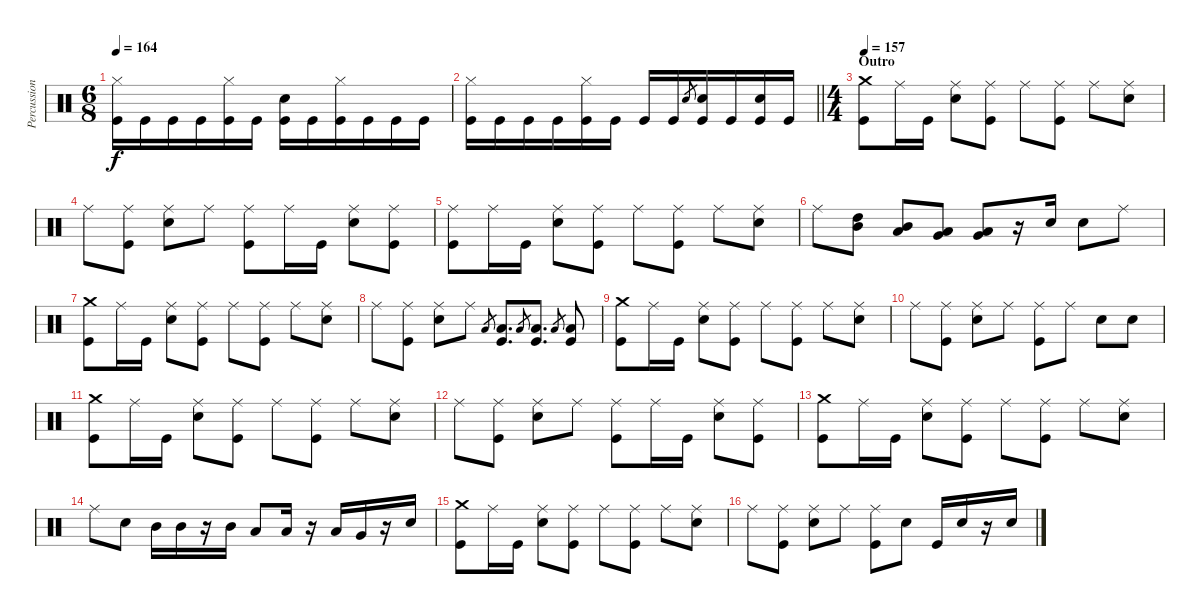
\track ("Percussion" "Percussion") {instrument percussion}
\staff {score}
\articulation defaults
\ts (6 8)
\tempo 164
\clef neutral
\ks c
("Hi-Hat (closed)" "Kick (hit)").16{dy f} "Kick (hit)".16 "Kick (hit)".16 "Kick (hit)".16 ("Hi-Hat (closed)" "Kick (hit)").16 "Kick (hit)".16 ("Snare (hit) 2" "Kick (hit)").16 "Kick (hit)".16 ("Hi-Hat (closed)" "Kick (hit)").16 "Kick (hit)".16 "Kick (hit)".16 "Kick (hit)".16 |
\barLineRight lightlight
("Hi-Hat (closed)" "Kick (hit)").16 "Kick (hit)".16 "Kick (hit)".16 "Kick (hit)".16 ("Hi-Hat (closed)" "Kick (hit)").16 "Kick (hit)".16 "Kick (hit)".16 "Kick (hit)".16 "Snare (hit) 2".8{gr} ("Snare (hit) 2" "Kick (hit)").16 "Kick (hit)".16 ("Snare (hit) 2" "Kick (hit)").16 "Kick (hit)".16 |
\ts (4 4)
\section ("" "Outro")
\tempo 157
("Crash medium (hit)" "Kick (hit)").8 "Ride (middle)".16 "Kick (hit)".16 ("Ride (middle)" "Snare (hit) 2").8 ("Ride (middle)" "Kick (hit)").8 "Ride (middle)".8 ("Ride (middle)" "Kick (hit)").8 "Ride (middle)".8 ("Ride (middle)" "Snare (hit) 2").8 |
"Ride (middle)".8 ("Ride (middle)" "Kick (hit)").8 ("Ride (middle)" "Snare (hit) 2").8 "Ride (middle)".8 ("Ride (middle)" "Kick (hit)").8 "Ride (middle)".16 "Kick (hit)".16 ("Ride (middle)" "Snare (hit) 2").8 ("Ride (middle)" "Kick (hit)").8 |
("Ride (middle)" "Kick (hit)").8 "Ride (middle)".16 "Kick (hit)".16 ("Ride (middle)" "Snare (hit) 2").8 ("Ride (middle)" "Kick (hit)").8 "Ride (middle)".8 ("Ride (middle)" "Kick (hit)").8 "Ride (middle)".8 ("Ride (middle)" "Snare (hit) 2").8 |
"Ride (middle)".8 ("High Tom (hit)" "Mid Tom (hit)").8 ("Mid Tom (hit)" "Low Tom (hit)").8 ("Low Tom (hit)" "Very Low Tom (hit)").8 ("Very Low Tom (hit)" "Low Floor Tom (hit)").8 r.16 "Snare (hit) 2".16 "Snare (hit) 2".8 "Ride (middle)".8 |
("Crash medium (hit)" "Kick (hit)").8 "Ride (middle)".16 "Kick (hit)".16 ("Ride (middle)" "Snare (hit) 2").8 ("Ride (middle)" "Kick (hit)").8 "Ride (middle)".8 ("Ride (middle)" "Kick (hit)").8 "Ride (middle)".8 ("Ride (middle)" "Snare (hit) 2").8 |
"Ride (middle)".8 ("Ride (middle)" "Kick (hit)").8 ("Ride (middle)" "Snare (hit) 2").8 "Ride (middle)".8 "Low Floor Tom (hit)".8{gr} ("Low Tom (hit)" "Kick (hit)").8{d} "Low Floor Tom (hit)".8{gr} ("Low Tom (hit)" "Kick (hit)").8{d} "Low Floor Tom (hit)".8{gr} ("Low Tom (hit)" "Kick (hit)").8 |
("Crash medium (hit)" "Kick (hit)").8 "Ride (middle)".16 "Kick (hit)".16 ("Ride (middle)" "Snare (hit) 2").8 ("Ride (middle)" "Kick (hit)").8 "Ride (middle)".8 ("Ride (middle)" "Kick (hit)").8 "Ride (middle)".8 ("Ride (middle)" "Snare (hit) 2").8 |
"Ride (middle)".8 ("Ride (middle)" "Kick (hit)").8 ("Ride (middle)" "Snare (hit) 2").8 "Ride (middle)".8 ("Ride (middle)" "Kick (hit)").8 "Ride (middle)".8 "Snare (hit) 2".8 "Snare (hit) 2".8 |
("Crash medium (hit)" "Kick (hit)").8 "Ride (middle)".16 "Kick (hit)".16 ("Ride (middle)" "Snare (hit) 2").8 ("Ride (middle)" "Kick (hit)").8 "Ride (middle)".8 ("Ride (middle)" "Kick (hit)").8 "Ride (middle)".8 ("Ride (middle)" "Snare (hit) 2").8 |
"Ride (middle)".8 ("Ride (middle)" "Kick (hit)").8 ("Ride (middle)" "Snare (hit) 2").8 "Ride (middle)".8 ("Ride (middle)" "Kick (hit)").8 "Ride (middle)".16 "Kick (hit)".16 ("Ride (middle)" "Snare (hit) 2").8 ("Ride (middle)" "Kick (hit)").8 |
("Crash medium (hit)" "Kick (hit)").8 "Ride (middle)".16 "Kick (hit)".16 ("Ride (middle)" "Snare (hit) 2").8 ("Ride (middle)" "Kick (hit)").8 "Ride (middle)".8 ("Ride (middle)" "Kick (hit)").8 "Ride (middle)".8 ("Ride (middle)" "Snare (hit) 2").8 |
"Ride (middle)".8 "Snare (hit) 2".8 "Mid Tom (hit)".16 "Mid Tom (hit)".16 r.16 "Mid Tom (hit)".16 "Low Tom (hit)".8 "Low Tom (hit)".16 r.16 "Low Tom (hit)".16 "Very Low Tom (hit)".16 r.16 "Snare (hit) 2".16 |
("Crash medium (hit)" "Kick (hit)").8 "Ride (middle)".16 "Kick (hit)".16 ("Ride (middle)" "Snare (hit) 2").8 ("Ride (middle)" "Kick (hit)").8 "Ride (middle)".8 ("Ride (middle)" "Kick (hit)").8 "Ride (middle)".8 ("Ride (middle)" "Snare (hit) 2").8 |
"Ride (middle)".8 ("Ride (middle)" "Kick (hit)").8 ("Ride (middle)" "Snare (hit) 2").8 "Ride (middle)".8 ("Ride (middle)" "Kick (hit)").8 "Snare (hit) 2".8 "Kick (hit)".16 "Snare (hit) 2".16 r.16 "Snare (hit) 2".16
